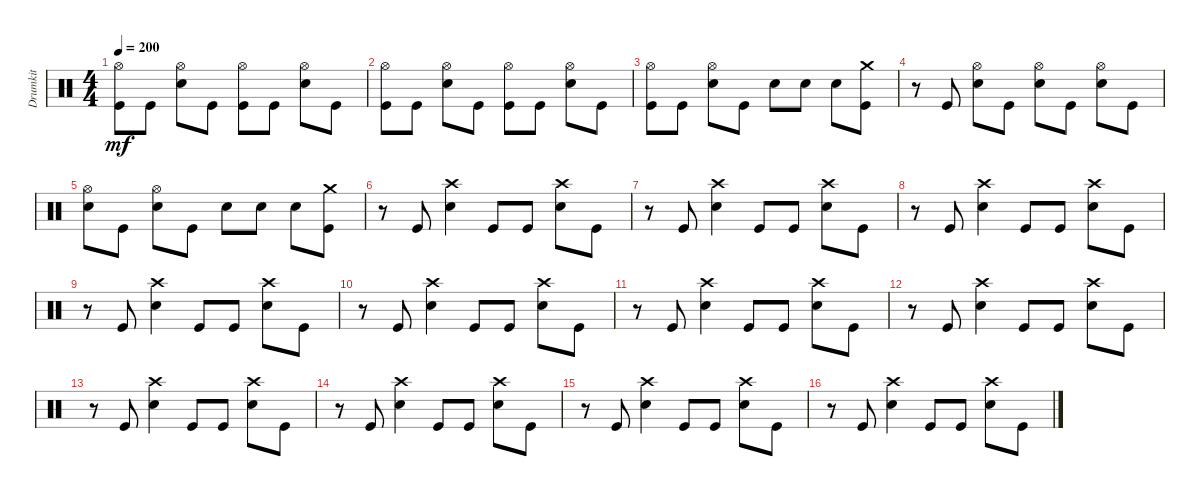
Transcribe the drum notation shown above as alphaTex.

\track ("Drumkit" "Drumkit") {instrument percussion}
\staff {score}
\articulation defaults
\ts (4 4)
\tempo 200
\clef neutral
\ks c
("Kick (hit)" "Hi-Hat (open)").8{dy mf} "Kick (hit)".8 ("Hi-Hat (open)" "Snare (hit) 2").8 "Kick (hit)".8 ("Kick (hit)" "Hi-Hat (open)").8 "Kick (hit)".8 ("Snare (hit) 2" "Hi-Hat (open)").8 "Kick (hit)".8 |
("Kick (hit)" "Hi-Hat (open)").8 "Kick (hit)".8 ("Hi-Hat (open)" "Snare (hit) 2").8 "Kick (hit)".8 ("Kick (hit)" "Hi-Hat (open)").8 "Kick (hit)".8 ("Snare (hit) 2" "Hi-Hat (open)").8 "Kick (hit)".8 |
("Kick (hit)" "Hi-Hat (open)").8 "Kick (hit)".8 ("Hi-Hat (open)" "Snare (hit) 2").8 "Kick (hit)".8 "Snare (hit) 2".8 "Snare (hit) 2".8 "Snare (hit) 2".8 ("Kick (hit)" "Crash medium (hit)").8 |
r.8 "Kick (hit)".8 ("Snare (hit) 2" "Hi-Hat (open)").8 "Kick (hit)".8 ("Snare (hit) 2" "Hi-Hat (open)").8 "Kick (hit)".8 ("Snare (hit) 2" "Hi-Hat (open)").8 "Kick (hit)".8 |
("Snare (hit) 2" "Hi-Hat (open)").8 "Kick (hit)".8 ("Snare (hit) 2" "Hi-Hat (open)").8 "Kick (hit)".8 "Snare (hit) 2".8 "Snare (hit) 2".8 "Snare (hit) 2".8 ("Kick (hit)" "Crash medium (hit)").8 |
r.8 "Kick (hit)".8 ("Snare (hit) 2" "Crash high (hit)").4 "Kick (hit)".8 "Kick (hit)".8 ("Snare (hit) 2" "Crash high (hit)").8 "Kick (hit)".8 |
r.8 "Kick (hit)".8 ("Snare (hit) 2" "Crash high (hit)").4 "Kick (hit)".8 "Kick (hit)".8 ("Snare (hit) 2" "Crash high (hit)").8 "Kick (hit)".8 |
r.8 "Kick (hit)".8 ("Snare (hit) 2" "Crash high (hit)").4 "Kick (hit)".8 "Kick (hit)".8 ("Snare (hit) 2" "Crash high (hit)").8 "Kick (hit)".8 |
r.8 "Kick (hit)".8 ("Snare (hit) 2" "Crash high (hit)").4 "Kick (hit)".8 "Kick (hit)".8 ("Snare (hit) 2" "Crash high (hit)").8 "Kick (hit)".8 |
r.8 "Kick (hit)".8 ("Snare (hit) 2" "Crash high (hit)").4 "Kick (hit)".8 "Kick (hit)".8 ("Snare (hit) 2" "Crash high (hit)").8 "Kick (hit)".8 |
r.8 "Kick (hit)".8 ("Snare (hit) 2" "Crash high (hit)").4 "Kick (hit)".8 "Kick (hit)".8 ("Snare (hit) 2" "Crash high (hit)").8 "Kick (hit)".8 |
r.8 "Kick (hit)".8 ("Snare (hit) 2" "Crash high (hit)").4 "Kick (hit)".8 "Kick (hit)".8 ("Snare (hit) 2" "Crash high (hit)").8 "Kick (hit)".8 |
r.8 "Kick (hit)".8 ("Snare (hit) 2" "Crash high (hit)").4 "Kick (hit)".8 "Kick (hit)".8 ("Snare (hit) 2" "Crash high (hit)").8 "Kick (hit)".8 |
r.8 "Kick (hit)".8 ("Snare (hit) 2" "Crash high (hit)").4 "Kick (hit)".8 "Kick (hit)".8 ("Snare (hit) 2" "Crash high (hit)").8 "Kick (hit)".8 |
r.8 "Kick (hit)".8 ("Snare (hit) 2" "Crash high (hit)").4 "Kick (hit)".8 "Kick (hit)".8 ("Snare (hit) 2" "Crash high (hit)").8 "Kick (hit)".8 |
r.8 "Kick (hit)".8 ("Snare (hit) 2" "Crash high (hit)").4 "Kick (hit)".8 "Kick (hit)".8 ("Snare (hit) 2" "Crash high (hit)").8 "Kick (hit)".8
